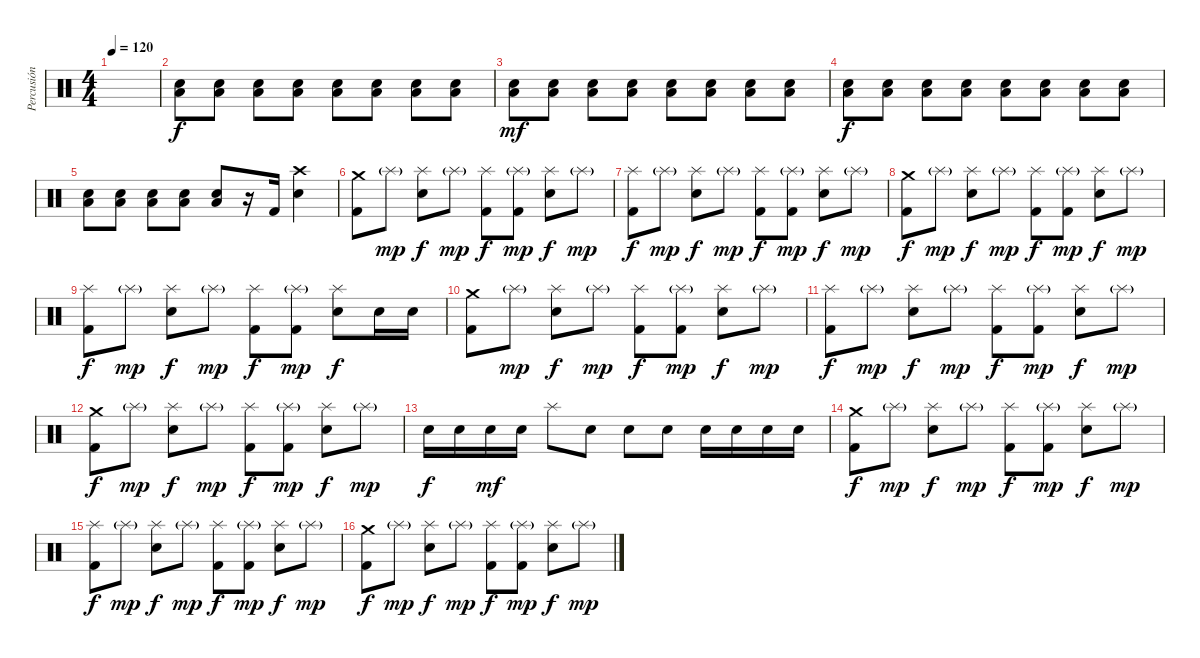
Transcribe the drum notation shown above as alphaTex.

\track ("Percusión" "Percusión") {instrument percussion}
\staff {score}
\articulation defaults
\ts (4 4)
\tempo 120
\clef neutral
\ks c
|
("Low Floor Tom (hit)" "Electric Snare (hit)").8 ("Low Floor Tom (hit)" "Electric Snare (hit)").8 ("Low Floor Tom (hit)" "Electric Snare (hit)").8 ("Low Floor Tom (hit)" "Electric Snare (hit)").8 ("Low Floor Tom (hit)" "Electric Snare (hit)").8 ("Low Floor Tom (hit)" "Electric Snare (hit)").8 ("Low Floor Tom (hit)" "Electric Snare (hit)").8 ("Low Floor Tom (hit)" "Electric Snare (hit)").8 |
("Low Floor Tom (hit)" "Electric Snare (hit)").8{dy mf} ("Low Floor Tom (hit)" "Electric Snare (hit)").8 ("Low Floor Tom (hit)" "Electric Snare (hit)").8 ("Low Floor Tom (hit)" "Electric Snare (hit)").8 ("Low Floor Tom (hit)" "Electric Snare (hit)").8 ("Low Floor Tom (hit)" "Electric Snare (hit)").8 ("Low Floor Tom (hit)" "Electric Snare (hit)").8 ("Low Floor Tom (hit)" "Electric Snare (hit)").8 |
("Low Floor Tom (hit)" "Electric Snare (hit)").8{dy f} ("Low Floor Tom (hit)" "Electric Snare (hit)").8 ("Low Floor Tom (hit)" "Electric Snare (hit)").8 ("Low Floor Tom (hit)" "Electric Snare (hit)").8 ("Low Floor Tom (hit)" "Electric Snare (hit)").8 ("Low Floor Tom (hit)" "Electric Snare (hit)").8 ("Low Floor Tom (hit)" "Electric Snare (hit)").8 ("Low Floor Tom (hit)" "Electric Snare (hit)").8 |
("Low Floor Tom (hit)" "Electric Snare (hit)").8 ("Low Floor Tom (hit)" "Electric Snare (hit)").8 ("Low Floor Tom (hit)" "Electric Snare (hit)").8 ("Low Floor Tom (hit)" "Electric Snare (hit)").8 ("Low Floor Tom (hit)" "Electric Snare (hit)").8 r.16 "Kick (hit) 2".16 ("Crash high (hit)" "Electric Snare (hit)").4 |
("Crash medium (hit)" "Kick (hit) 2").8 "Splash (hit)"{g}.8{dy mp} ("Splash (hit)" "Electric Snare (hit)").8{dy f} "Splash (hit)"{g}.8{dy mp} ("Splash (hit)" "Kick (hit) 2").8{dy f} ("Splash (hit)"{g} "Kick (hit) 2").8{dy mp} ("Splash (hit)" "Electric Snare (hit)").8{dy f} "Splash (hit)"{g}.8{dy mp} |
("Splash (hit)" "Kick (hit) 2").8{dy f} "Splash (hit)"{g}.8{dy mp} ("Splash (hit)" "Electric Snare (hit)").8{dy f} "Splash (hit)"{g}.8{dy mp} ("Splash (hit)" "Kick (hit) 2").8{dy f} ("Splash (hit)"{g} "Kick (hit) 2").8{dy mp} ("Splash (hit)" "Electric Snare (hit)").8{dy f} "Splash (hit)"{g}.8{dy mp} |
("Crash medium (hit)" "Kick (hit) 2").8{dy f} "Splash (hit)"{g}.8{dy mp} ("Splash (hit)" "Electric Snare (hit)").8{dy f} "Splash (hit)"{g}.8{dy mp} ("Splash (hit)" "Kick (hit) 2").8{dy f} ("Splash (hit)"{g} "Kick (hit) 2").8{dy mp} ("Splash (hit)" "Electric Snare (hit)").8{dy f} "Splash (hit)"{g}.8{dy mp} |
("Splash (hit)" "Kick (hit) 2").8{dy f} "Splash (hit)"{g}.8{dy mp} ("Splash (hit)" "Electric Snare (hit)").8{dy f} "Splash (hit)"{g}.8{dy mp} ("Splash (hit)" "Kick (hit) 2").8{dy f} ("Splash (hit)"{g} "Kick (hit) 2").8{dy mp} ("Splash (hit)" "Electric Snare (hit)").8{dy f} "Electric Snare (hit)".16 "Electric Snare (hit)".16 |
("Crash medium (hit)" "Kick (hit) 2").8 "Splash (hit)"{g}.8{dy mp} ("Splash (hit)" "Electric Snare (hit)").8{dy f} "Splash (hit)"{g}.8{dy mp} ("Splash (hit)" "Kick (hit) 2").8{dy f} ("Splash (hit)"{g} "Kick (hit) 2").8{dy mp} ("Splash (hit)" "Electric Snare (hit)").8{dy f} "Splash (hit)"{g}.8{dy mp} |
("Splash (hit)" "Kick (hit) 2").8{dy f} "Splash (hit)"{g}.8{dy mp} ("Splash (hit)" "Electric Snare (hit)").8{dy f} "Splash (hit)"{g}.8{dy mp} ("Splash (hit)" "Kick (hit) 2").8{dy f} ("Splash (hit)"{g} "Kick (hit) 2").8{dy mp} ("Splash (hit)" "Electric Snare (hit)").8{dy f} "Splash (hit)"{g}.8{dy mp} |
("Crash medium (hit)" "Kick (hit) 2").8{dy f} "Splash (hit)"{g}.8{dy mp} ("Splash (hit)" "Electric Snare (hit)").8{dy f} "Splash (hit)"{g}.8{dy mp} ("Splash (hit)" "Kick (hit) 2").8{dy f} ("Splash (hit)"{g} "Kick (hit) 2").8{dy mp} ("Splash (hit)" "Electric Snare (hit)").8{dy f} "Splash (hit)"{g}.8{dy mp} |
"Electric Snare (hit)".16{dy f} "Electric Snare (hit)".16 "Electric Snare (hit)".16{dy mf} "Electric Snare (hit)".16 "Splash (hit)".8 "Electric Snare (hit)".8 "Electric Snare (hit)".8 "Electric Snare (hit)".8 "Electric Snare (hit)".16 "Electric Snare (hit)".16 "Electric Snare (hit)".16 "Electric Snare (hit)".16 |
("Crash medium (hit)" "Kick (hit) 2").8{dy f} "Splash (hit)"{g}.8{dy mp} ("Splash (hit)" "Electric Snare (hit)").8{dy f} "Splash (hit)"{g}.8{dy mp} ("Splash (hit)" "Kick (hit) 2").8{dy f} ("Splash (hit)"{g} "Kick (hit) 2").8{dy mp} ("Splash (hit)" "Electric Snare (hit)").8{dy f} "Splash (hit)"{g}.8{dy mp} |
("Splash (hit)" "Kick (hit) 2").8{dy f} "Splash (hit)"{g}.8{dy mp} ("Splash (hit)" "Electric Snare (hit)").8{dy f} "Splash (hit)"{g}.8{dy mp} ("Splash (hit)" "Kick (hit) 2").8{dy f} ("Splash (hit)"{g} "Kick (hit) 2").8{dy mp} ("Splash (hit)" "Electric Snare (hit)").8{dy f} "Splash (hit)"{g}.8{dy mp} |
("Crash medium (hit)" "Kick (hit) 2").8{dy f} "Splash (hit)"{g}.8{dy mp} ("Splash (hit)" "Electric Snare (hit)").8{dy f} "Splash (hit)"{g}.8{dy mp} ("Splash (hit)" "Kick (hit) 2").8{dy f} ("Splash (hit)"{g} "Kick (hit) 2").8{dy mp} ("Splash (hit)" "Electric Snare (hit)").8{dy f} "Splash (hit)"{g}.8{dy mp}
